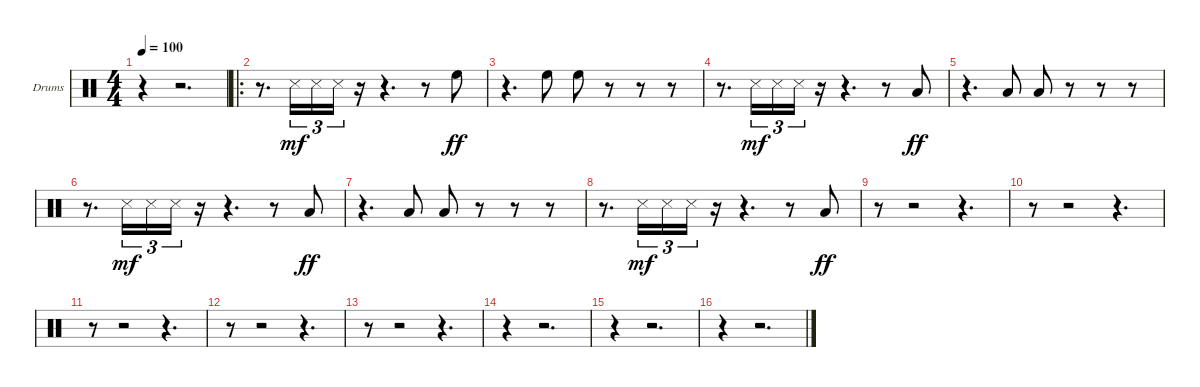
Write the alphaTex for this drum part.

\bracketExtendMode groupsimilarinstruments
\firstSystemTrackNameOrientation horizontal
\otherSystemsTrackNameOrientation horizontal
\track ("Drumkit" "Drums") {instrument percussion}
\staff {score}
\articulation defaults
\ts (4 4)
\beaming (8 2 2 2 2)
\tempo 100
\clef neutral
\ks c
r.4{dy mf} r.2{d} |
\ro
r.8{d} "Snare (side stick) 3".16{tu (3 2)} "Snare (side stick) 3".16{tu (3 2)} "Snare (side stick) 3".16{tu (3 2)} r.16 r.4{d} r.8 "High Floor Tom (hit)".8{dy ff} |
r.4{d} "High Floor Tom (hit)".8 "High Floor Tom (hit)".8 r.8 r.8 r.8 |
r.8{d} "Snare (side stick) 3".16{tu (3 2) dy mf} "Snare (side stick) 3".16{tu (3 2)} "Snare (side stick) 3".16{tu (3 2)} r.16 r.4{d} r.8 "Low Tom (hit)".8{dy ff} |
r.4{d} "Low Tom (hit)".8 "Low Tom (hit)".8 r.8 r.8 r.8 |
r.8{d} "Snare (side stick) 3".16{tu (3 2) dy mf} "Snare (side stick) 3".16{tu (3 2)} "Snare (side stick) 3".16{tu (3 2)} r.16 r.4{d} r.8 "Low Tom (hit)".8{dy ff} |
r.4{d} "Low Tom (hit)".8 "Low Tom (hit)".8 r.8 r.8 r.8 |
r.8{d} "Snare (side stick) 3".16{tu (3 2) dy mf} "Snare (side stick) 3".16{tu (3 2)} "Snare (side stick) 3".16{tu (3 2)} r.16 r.4{d} r.8 "Low Tom (hit)".8{dy ff} |
r.8 r.2 r.4{d} |
r.8 r.2 r.4{d} |
r.8 r.2 r.4{d} |
r.8 r.2 r.4{d} |
r.8 r.2 r.4{d} |
r.4 r.2{d} |
r.4 r.2{d} |
r.4 r.2{d}
